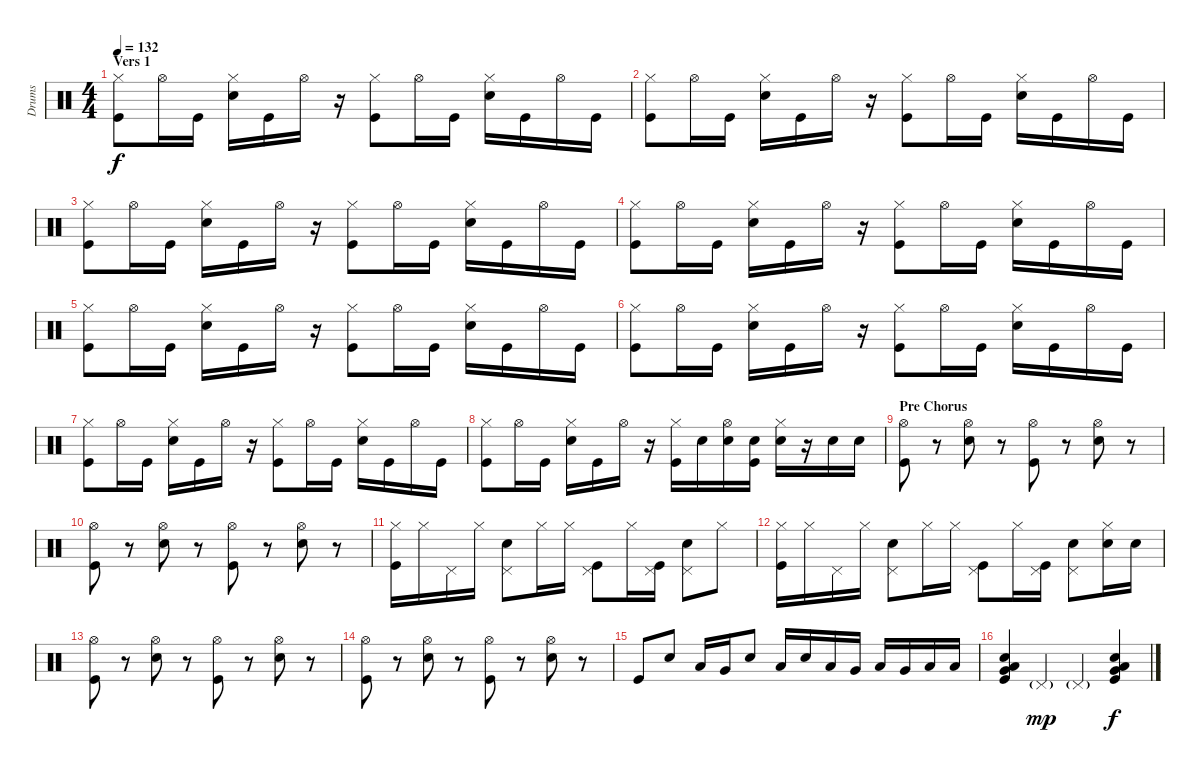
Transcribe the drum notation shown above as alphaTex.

\track ("Drums" "Drums") {instrument percussion}
\staff {score}
\articulation defaults
\ts (4 4)
\section ("" "Vers 1")
\tempo 132
\clef neutral
\ks c
("Hi-Hat (closed)" "Kick (hit)").8{dy f} "Hi-Hat (open)".16 "Kick (hit)".16 ("Hi-Hat (closed)" "Snare (hit) 2").16 "Kick (hit)".16 "Hi-Hat (open)".16 r.16 ("Hi-Hat (closed)" "Kick (hit)").8 "Hi-Hat (open)".16 "Kick (hit)".16 ("Hi-Hat (closed)" "Snare (hit) 2").16 "Kick (hit)".16 "Hi-Hat (open)".16 "Kick (hit)".16 |
("Hi-Hat (closed)" "Kick (hit)").8 "Hi-Hat (open)".16 "Kick (hit)".16 ("Hi-Hat (closed)" "Snare (hit) 2").16 "Kick (hit)".16 "Hi-Hat (open)".16 r.16 ("Hi-Hat (closed)" "Kick (hit)").8 "Hi-Hat (open)".16 "Kick (hit)".16 ("Hi-Hat (closed)" "Snare (hit) 2").16 "Kick (hit)".16 "Hi-Hat (open)".16 "Kick (hit)".16 |
("Hi-Hat (closed)" "Kick (hit)").8 "Hi-Hat (open)".16 "Kick (hit)".16 ("Hi-Hat (closed)" "Snare (hit) 2").16 "Kick (hit)".16 "Hi-Hat (open)".16 r.16 ("Hi-Hat (closed)" "Kick (hit)").8 "Hi-Hat (open)".16 "Kick (hit)".16 ("Hi-Hat (closed)" "Snare (hit) 2").16 "Kick (hit)".16 "Hi-Hat (open)".16 "Kick (hit)".16 |
("Hi-Hat (closed)" "Kick (hit)").8 "Hi-Hat (open)".16 "Kick (hit)".16 ("Hi-Hat (closed)" "Snare (hit) 2").16 "Kick (hit)".16 "Hi-Hat (open)".16 r.16 ("Hi-Hat (closed)" "Kick (hit)").8 "Hi-Hat (open)".16 "Kick (hit)".16 ("Hi-Hat (closed)" "Snare (hit) 2").16 "Kick (hit)".16 "Hi-Hat (open)".16 "Kick (hit)".16 |
("Hi-Hat (closed)" "Kick (hit)").8 "Hi-Hat (open)".16 "Kick (hit)".16 ("Hi-Hat (closed)" "Snare (hit) 2").16 "Kick (hit)".16 "Hi-Hat (open)".16 r.16 ("Hi-Hat (closed)" "Kick (hit)").8 "Hi-Hat (open)".16 "Kick (hit)".16 ("Hi-Hat (closed)" "Snare (hit) 2").16 "Kick (hit)".16 "Hi-Hat (open)".16 "Kick (hit)".16 |
("Hi-Hat (closed)" "Kick (hit)").8 "Hi-Hat (open)".16 "Kick (hit)".16 ("Hi-Hat (closed)" "Snare (hit) 2").16 "Kick (hit)".16 "Hi-Hat (open)".16 r.16 ("Hi-Hat (closed)" "Kick (hit)").8 "Hi-Hat (open)".16 "Kick (hit)".16 ("Hi-Hat (closed)" "Snare (hit) 2").16 "Kick (hit)".16 "Hi-Hat (open)".16 "Kick (hit)".16 |
("Hi-Hat (closed)" "Kick (hit)").8 "Hi-Hat (open)".16 "Kick (hit)".16 ("Hi-Hat (closed)" "Snare (hit) 2").16 "Kick (hit)".16 "Hi-Hat (open)".16 r.16 ("Hi-Hat (closed)" "Kick (hit)").8 "Hi-Hat (open)".16 "Kick (hit)".16 ("Hi-Hat (closed)" "Snare (hit) 2").16 "Kick (hit)".16 "Hi-Hat (open)".16 "Kick (hit)".16 |
("Hi-Hat (closed)" "Kick (hit)").8 "Hi-Hat (open)".16 "Kick (hit)".16 ("Hi-Hat (closed)" "Snare (hit) 2").16 "Kick (hit)".16 "Hi-Hat (open)".16 r.16 ("Hi-Hat (closed)" "Kick (hit)").16 "Snare (hit) 2".16 ("Hi-Hat (open)" "Snare (hit) 2").16 ("Snare (hit) 2" "Kick (hit)").16 ("Hi-Hat (closed)" "Snare (hit) 2").16 r.16 "Snare (hit) 2".16 "Snare (hit) 2".16 |
\section ("" "Pre Chorus")
("Hi-Hat (open)" "Kick (hit)").8 r.8 ("Hi-Hat (open)" "Snare (hit) 2").8 r.8 ("Hi-Hat (open)" "Kick (hit)").8 r.8 ("Hi-Hat (open)" "Snare (hit) 2").8 r.8 |
("Hi-Hat (open)" "Kick (hit)").8 r.8 ("Hi-Hat (open)" "Snare (hit) 2").8 r.8 ("Hi-Hat (open)" "Kick (hit)").8 r.8 ("Hi-Hat (open)" "Snare (hit) 2").8 r.8 |
("Hi-Hat (closed)" "Kick (hit)").16 "Hi-Hat (closed)".16 "Pedal Hi-Hat (hit)".16 "Hi-Hat (closed)".16 ("Pedal Hi-Hat (hit)" "Snare (hit) 2").8 "Hi-Hat (closed)".16 "Hi-Hat (closed)".16 ("Pedal Hi-Hat (hit)" "Kick (hit)").8 "Hi-Hat (closed)".16 ("Pedal Hi-Hat (hit)" "Kick (hit)").16 ("Pedal Hi-Hat (hit)" "Snare (hit) 2").8 "Hi-Hat (closed)".8 |
("Hi-Hat (closed)" "Kick (hit)").16 "Hi-Hat (closed)".16 "Pedal Hi-Hat (hit)".16 "Hi-Hat (closed)".16 ("Pedal Hi-Hat (hit)" "Snare (hit) 2").8 "Hi-Hat (closed)".16 "Hi-Hat (closed)".16 ("Pedal Hi-Hat (hit)" "Kick (hit)").8 "Hi-Hat (closed)".16 ("Pedal Hi-Hat (hit)" "Kick (hit)").16 ("Pedal Hi-Hat (hit)" "Snare (hit) 2").8 ("Hi-Hat (closed)" "Snare (hit) 2").16 "Snare (hit) 2".16 |
("Hi-Hat (open)" "Kick (hit)").8 r.8 ("Hi-Hat (open)" "Snare (hit) 2").8 r.8 ("Hi-Hat (open)" "Kick (hit)").8 r.8 ("Hi-Hat (open)" "Snare (hit) 2").8 r.8 |
("Hi-Hat (open)" "Kick (hit)").8 r.8 ("Hi-Hat (open)" "Snare (hit) 2").8 r.8 ("Hi-Hat (open)" "Kick (hit)").8 r.8 ("Hi-Hat (open)" "Snare (hit) 2").8 r.8 |
"Kick (hit)".8 "Snare (hit) 2".8 "Low Tom (hit)".16 "Very Low Tom (hit)".16 "Snare (hit) 2".8 "Low Tom (hit)".16 "Snare (hit) 2".16 "Low Tom (hit)".16 "Very Low Tom (hit)".16 "Low Floor Tom (hit)".16 "Very Low Tom (hit)".16 "Low Tom (hit)".16 "Low Floor Tom (hit)".16 |
("Very Low Tom (hit)" "Low Tom (hit)" "Snare (hit) 2" "Kick (hit)").4 "Pedal Hi-Hat (hit)"{g}.4{dy mp} "Pedal Hi-Hat (hit)"{g}.4 ("Very Low Tom (hit)" "Low Tom (hit)" "Snare (hit) 2" "Kick (hit)").4{dy f}
